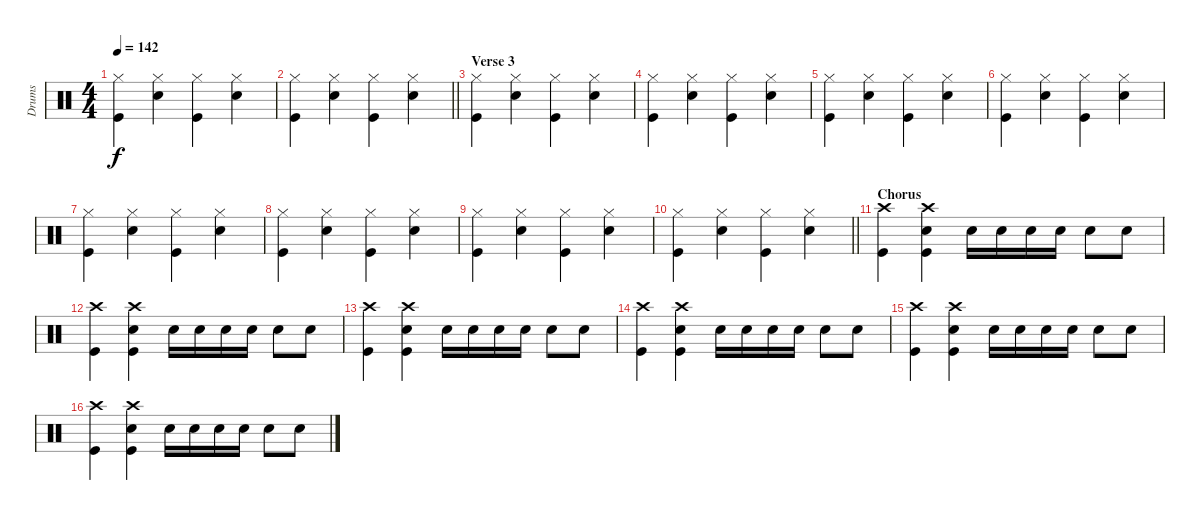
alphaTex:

\track ("Drums" "Drums") {instrument percussion}
\staff {score}
\articulation defaults
\ts (4 4)
\tempo 142
\clef neutral
\ks c
("Hi-Hat (closed)" "Kick (hit)").4{dy f} ("Hi-Hat (closed)" "Snare (hit) 2").4 ("Hi-Hat (closed)" "Kick (hit)").4 ("Hi-Hat (closed)" "Snare (hit) 2").4 |
\barLineRight lightlight
("Hi-Hat (closed)" "Kick (hit)").4 ("Hi-Hat (closed)" "Snare (hit) 2").4 ("Hi-Hat (closed)" "Kick (hit)").4 ("Hi-Hat (closed)" "Snare (hit) 2").4 |
\section ("" "Verse 3")
("Hi-Hat (closed)" "Kick (hit)").4 ("Hi-Hat (closed)" "Snare (hit) 2").4 ("Hi-Hat (closed)" "Kick (hit)").4 ("Hi-Hat (closed)" "Snare (hit) 2").4 |
("Hi-Hat (closed)" "Kick (hit)").4 ("Hi-Hat (closed)" "Snare (hit) 2").4 ("Hi-Hat (closed)" "Kick (hit)").4 ("Hi-Hat (closed)" "Snare (hit) 2").4 |
("Hi-Hat (closed)" "Kick (hit)").4 ("Hi-Hat (closed)" "Snare (hit) 2").4 ("Hi-Hat (closed)" "Kick (hit)").4 ("Hi-Hat (closed)" "Snare (hit) 2").4 |
("Hi-Hat (closed)" "Kick (hit)").4 ("Hi-Hat (closed)" "Snare (hit) 2").4 ("Hi-Hat (closed)" "Kick (hit)").4 ("Hi-Hat (closed)" "Snare (hit) 2").4 |
("Hi-Hat (closed)" "Kick (hit)").4 ("Hi-Hat (closed)" "Snare (hit) 2").4 ("Hi-Hat (closed)" "Kick (hit)").4 ("Hi-Hat (closed)" "Snare (hit) 2").4 |
("Hi-Hat (closed)" "Kick (hit)").4 ("Hi-Hat (closed)" "Snare (hit) 2").4 ("Hi-Hat (closed)" "Kick (hit)").4 ("Hi-Hat (closed)" "Snare (hit) 2").4 |
("Hi-Hat (closed)" "Kick (hit)").4 ("Hi-Hat (closed)" "Snare (hit) 2").4 ("Hi-Hat (closed)" "Kick (hit)").4 ("Hi-Hat (closed)" "Snare (hit) 2").4 |
\barLineRight lightlight
("Hi-Hat (closed)" "Kick (hit)").4 ("Hi-Hat (closed)" "Snare (hit) 2").4 ("Hi-Hat (closed)" "Kick (hit)").4 ("Hi-Hat (closed)" "Snare (hit) 2").4 |
\section ("" "Chorus")
("Crash high (hit)" "Kick (hit)").4 ("Crash high (hit)" "Snare (hit) 2" "Kick (hit)").4 "Snare (hit) 2".16 "Snare (hit) 2".16 "Snare (hit) 2".16 "Snare (hit) 2".16 "Snare (hit) 2".8 "Snare (hit) 2".8 |
("Crash high (hit)" "Kick (hit)").4 ("Crash high (hit)" "Snare (hit) 2" "Kick (hit)").4 "Snare (hit) 2".16 "Snare (hit) 2".16 "Snare (hit) 2".16 "Snare (hit) 2".16 "Snare (hit) 2".8 "Snare (hit) 2".8 |
("Crash high (hit)" "Kick (hit)").4 ("Crash high (hit)" "Snare (hit) 2" "Kick (hit)").4 "Snare (hit) 2".16 "Snare (hit) 2".16 "Snare (hit) 2".16 "Snare (hit) 2".16 "Snare (hit) 2".8 "Snare (hit) 2".8 |
("Crash high (hit)" "Kick (hit)").4 ("Crash high (hit)" "Snare (hit) 2" "Kick (hit)").4 "Snare (hit) 2".16 "Snare (hit) 2".16 "Snare (hit) 2".16 "Snare (hit) 2".16 "Snare (hit) 2".8 "Snare (hit) 2".8 |
("Crash high (hit)" "Kick (hit)").4 ("Crash high (hit)" "Snare (hit) 2" "Kick (hit)").4 "Snare (hit) 2".16 "Snare (hit) 2".16 "Snare (hit) 2".16 "Snare (hit) 2".16 "Snare (hit) 2".8 "Snare (hit) 2".8 |
("Crash high (hit)" "Kick (hit)").4 ("Crash high (hit)" "Snare (hit) 2" "Kick (hit)").4 "Snare (hit) 2".16 "Snare (hit) 2".16 "Snare (hit) 2".16 "Snare (hit) 2".16 "Snare (hit) 2".8 "Snare (hit) 2".8
